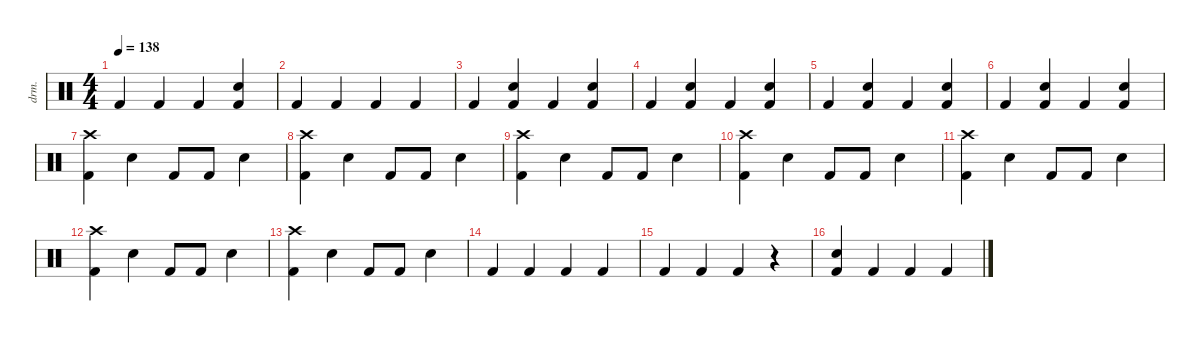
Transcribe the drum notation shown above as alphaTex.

\defaultSystemsLayout 4
\hideDynamics
\bracketExtendMode nobrackets
\otherSystemsTrackNameOrientation horizontal
\track ("Drumkit" "drm.") {instrument percussion bank 128}
\staff {score}
\articulation defaults
\ts (4 4)
\tempo 138
\clef neutral
\ks c "Kick (hit) 2".4{dy mf beam Up} "Kick (hit) 2".4{beam Up} "Kick (hit) 2".4{beam Up}
("Kick (hit) 2" "Snare (hit) 2").4{beam Up} |
"Kick (hit) 2".4{beam Up} "Kick (hit) 2".4{beam Up} "Kick (hit) 2".4{beam Up} "Kick (hit) 2".4{beam Up} |
"Kick (hit) 2".4{beam Up} ("Kick (hit) 2" "Snare (hit) 2").4{beam Up} "Kick (hit) 2".4{beam Up} ("Kick (hit) 2" "Snare (hit) 2").4{beam Up} |
"Kick (hit) 2".4{beam Up} ("Kick (hit) 2" "Snare (hit) 2").4{beam Up} "Kick (hit) 2".4{beam Up} ("Kick (hit) 2" "Snare (hit) 2").4{beam Up} |
"Kick (hit) 2".4{beam Up} ("Kick (hit) 2" "Snare (hit) 2").4{beam Up} "Kick (hit) 2".4{beam Up} ("Kick (hit) 2" "Snare (hit) 2").4{beam Up} |
"Kick (hit) 2".4{beam Up} ("Kick (hit) 2" "Snare (hit) 2").4{beam Up} "Kick (hit) 2".4{beam Up} ("Kick (hit) 2" "Snare (hit) 2").4{beam Up} |
("Crash high (hit)" "Kick (hit) 2").4{beam Down} "Snare (hit) 2".4{beam Down} "Kick (hit) 2".8{beam Up} "Kick (hit) 2".8{beam Up} "Snare (hit) 2".4{beam Down} |
("Crash high (hit)" "Kick (hit) 2").4{beam Down} "Snare (hit) 2".4{beam Down} "Kick (hit) 2".8{beam Up} "Kick (hit) 2".8{beam Up} "Snare (hit) 2".4{beam Down} |
("Crash high (hit)" "Kick (hit) 2").4{beam Down} "Snare (hit) 2".4{beam Down} "Kick (hit) 2".8{beam Up} "Kick (hit) 2".8{beam Up} "Snare (hit) 2".4{beam Down} |
("Crash high (hit)" "Kick (hit) 2").4{beam Down} "Snare (hit) 2".4{beam Down} "Kick (hit) 2".8{beam Up} "Kick (hit) 2".8{beam Up} "Snare (hit) 2".4{beam Down} |
("Crash high (hit)" "Kick (hit) 2").4{beam Down} "Snare (hit) 2".4{beam Down} "Kick (hit) 2".8{beam Up} "Kick (hit) 2".8{beam Up} "Snare (hit) 2".4{beam Down} |
("Crash high (hit)" "Kick (hit) 2").4{beam Down} "Snare (hit) 2".4{beam Down} "Kick (hit) 2".8{beam Up} "Kick (hit) 2".8{beam Up} "Snare (hit) 2".4{beam Down} |
("Crash high (hit)" "Kick (hit) 2").4{beam Down} "Snare (hit) 2".4{beam Down} "Kick (hit) 2".8{beam Up} "Kick (hit) 2".8{beam Up} "Snare (hit) 2".4{beam Down} |
"Kick (hit) 2".4{beam Up} "Kick (hit) 2".4{beam Up} "Kick (hit) 2".4{beam Up} "Kick (hit) 2".4{beam Up} |
"Kick (hit) 2".4{beam Up} "Kick (hit) 2".4{beam Up} "Kick (hit) 2".4{beam Up} r.4{beam Up} |
("Kick (hit) 2" "Snare (hit) 2").4{beam Up} "Kick (hit) 2".4{beam Up} "Kick (hit) 2".4{beam Up} "Kick (hit) 2".4{beam Up}
